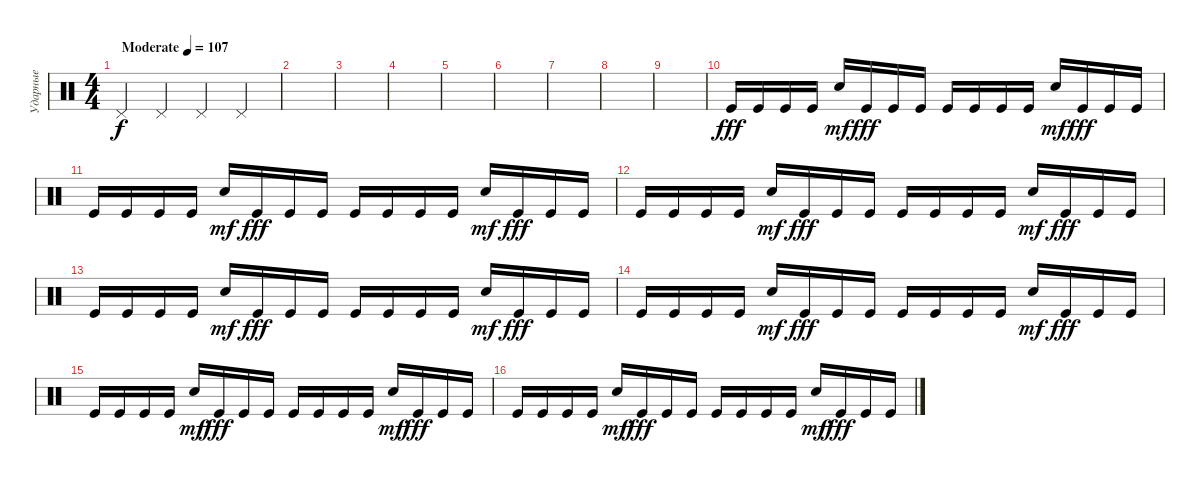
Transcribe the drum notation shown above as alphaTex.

\track ("Ударные" "Ударные") {instrument percussion}
\staff {score}
\articulation defaults
\ts (4 4)
\tempo (107 "Moderate")
\clef neutral
\ks c "Pedal Hi-Hat (hit)".4{dy f} "Pedal Hi-Hat (hit)".4 "Pedal Hi-Hat (hit)".4 "Pedal Hi-Hat (hit)".4
|
|
|
|
|
|
|
|
|
"Kick (hit)".16{dy fff} "Kick (hit)".16 "Kick (hit)".16 "Kick (hit)".16 "Electric Snare (hit)".16{dy mf} "Kick (hit)".16{dy fff} "Kick (hit)".16 "Kick (hit)".16 "Kick (hit)".16 "Kick (hit)".16 "Kick (hit)".16 "Kick (hit)".16 "Electric Snare (hit)".16{dy mf} "Kick (hit)".16{dy fff} "Kick (hit)".16 "Kick (hit)".16 |
"Kick (hit)".16 "Kick (hit)".16 "Kick (hit)".16 "Kick (hit)".16 "Electric Snare (hit)".16{dy mf} "Kick (hit)".16{dy fff} "Kick (hit)".16 "Kick (hit)".16 "Kick (hit)".16 "Kick (hit)".16 "Kick (hit)".16 "Kick (hit)".16 "Electric Snare (hit)".16{dy mf} "Kick (hit)".16{dy fff} "Kick (hit)".16 "Kick (hit)".16 |
"Kick (hit)".16 "Kick (hit)".16 "Kick (hit)".16 "Kick (hit)".16 "Electric Snare (hit)".16{dy mf} "Kick (hit)".16{dy fff} "Kick (hit)".16 "Kick (hit)".16 "Kick (hit)".16 "Kick (hit)".16 "Kick (hit)".16 "Kick (hit)".16 "Electric Snare (hit)".16{dy mf} "Kick (hit)".16{dy fff} "Kick (hit)".16 "Kick (hit)".16 |
"Kick (hit)".16 "Kick (hit)".16 "Kick (hit)".16 "Kick (hit)".16 "Electric Snare (hit)".16{dy mf} "Kick (hit)".16{dy fff} "Kick (hit)".16 "Kick (hit)".16 "Kick (hit)".16 "Kick (hit)".16 "Kick (hit)".16 "Kick (hit)".16 "Electric Snare (hit)".16{dy mf} "Kick (hit)".16{dy fff} "Kick (hit)".16 "Kick (hit)".16 |
"Kick (hit)".16 "Kick (hit)".16 "Kick (hit)".16 "Kick (hit)".16 "Electric Snare (hit)".16{dy mf} "Kick (hit)".16{dy fff} "Kick (hit)".16 "Kick (hit)".16 "Kick (hit)".16 "Kick (hit)".16 "Kick (hit)".16 "Kick (hit)".16 "Electric Snare (hit)".16{dy mf} "Kick (hit)".16{dy fff} "Kick (hit)".16 "Kick (hit)".16 |
"Kick (hit)".16 "Kick (hit)".16 "Kick (hit)".16 "Kick (hit)".16 "Electric Snare (hit)".16{dy mf} "Kick (hit)".16{dy fff} "Kick (hit)".16 "Kick (hit)".16 "Kick (hit)".16 "Kick (hit)".16 "Kick (hit)".16 "Kick (hit)".16 "Electric Snare (hit)".16{dy mf} "Kick (hit)".16{dy fff} "Kick (hit)".16 "Kick (hit)".16 |
"Kick (hit)".16 "Kick (hit)".16 "Kick (hit)".16 "Kick (hit)".16 "Electric Snare (hit)".16{dy mf} "Kick (hit)".16{dy fff} "Kick (hit)".16 "Kick (hit)".16 "Kick (hit)".16 "Kick (hit)".16 "Kick (hit)".16 "Kick (hit)".16 "Electric Snare (hit)".16{dy mf} "Kick (hit)".16{dy fff} "Kick (hit)".16 "Kick (hit)".16
